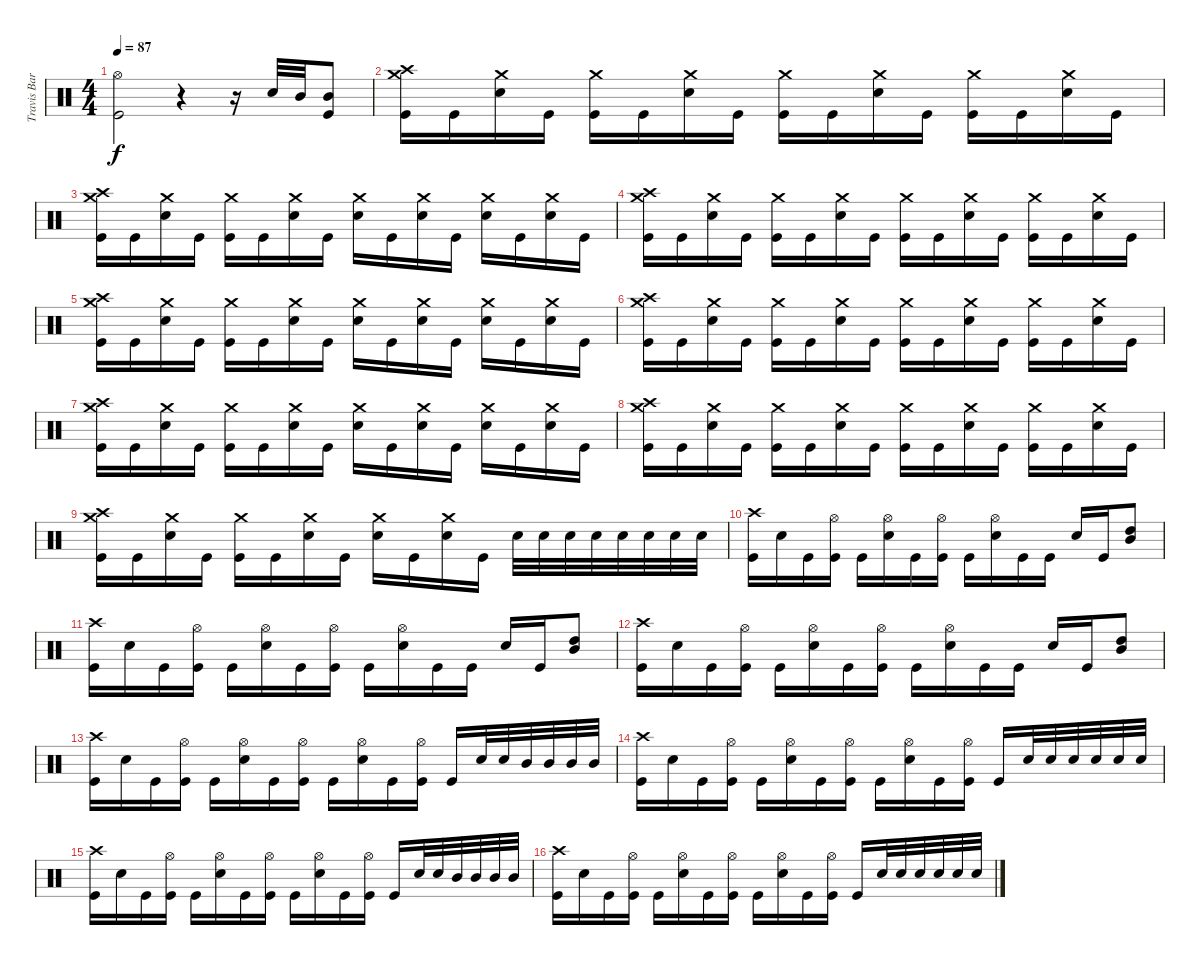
\track ("Travis Barker" "Travis Bar") {instrument percussion}
\staff {score}
\articulation defaults
\ts (4 4)
\tempo 87
\clef neutral
\ks c
("Hi-Hat (open)" "Kick (hit)").2{dy f} r.4 r.16 "Electric Snare (hit)".32 "Mid Tom (hit)".32 ("Mid Tom (hit)" "Kick (hit)").8 |
("Crash high (hit)" "Crash medium (hit)" "Kick (hit)").16 "Kick (hit)".16 ("Crash medium (hit)" "Electric Snare (hit)").16 "Kick (hit)".16 ("Crash medium (hit)" "Kick (hit)").16 "Kick (hit)".16 ("Crash medium (hit)" "Electric Snare (hit)").16 "Kick (hit)".16 ("Crash medium (hit)" "Kick (hit)").16 "Kick (hit)".16 ("Crash medium (hit)" "Electric Snare (hit)").16 "Kick (hit)".16 ("Crash medium (hit)" "Kick (hit)").16 "Kick (hit)".16 ("Crash medium (hit)" "Electric Snare (hit)").16 "Kick (hit)".16 |
("Crash high (hit)" "Crash medium (hit)" "Kick (hit)").16 "Kick (hit)".16 ("Crash medium (hit)" "Electric Snare (hit)").16 "Kick (hit)".16 ("Crash medium (hit)" "Kick (hit)").16 "Kick (hit)".16 ("Crash medium (hit)" "Electric Snare (hit)").16 "Kick (hit)".16 ("Crash medium (hit)" "Electric Snare (hit)").16 "Kick (hit)".16 ("Crash medium (hit)" "Electric Snare (hit)").16 "Kick (hit)".16 ("Crash medium (hit)" "Electric Snare (hit)").16 "Kick (hit)".16 ("Crash medium (hit)" "Electric Snare (hit)").16 "Kick (hit)".16 |
("Crash high (hit)" "Crash medium (hit)" "Kick (hit)").16 "Kick (hit)".16 ("Crash medium (hit)" "Electric Snare (hit)").16 "Kick (hit)".16 ("Crash medium (hit)" "Kick (hit)").16 "Kick (hit)".16 ("Crash medium (hit)" "Electric Snare (hit)").16 "Kick (hit)".16 ("Crash medium (hit)" "Kick (hit)").16 "Kick (hit)".16 ("Crash medium (hit)" "Electric Snare (hit)").16 "Kick (hit)".16 ("Crash medium (hit)" "Kick (hit)").16 "Kick (hit)".16 ("Crash medium (hit)" "Electric Snare (hit)").16 "Kick (hit)".16 |
("Crash high (hit)" "Crash medium (hit)" "Kick (hit)").16 "Kick (hit)".16 ("Crash medium (hit)" "Electric Snare (hit)").16 "Kick (hit)".16 ("Crash medium (hit)" "Kick (hit)").16 "Kick (hit)".16 ("Crash medium (hit)" "Electric Snare (hit)").16 "Kick (hit)".16 ("Crash medium (hit)" "Electric Snare (hit)").16 "Kick (hit)".16 ("Crash medium (hit)" "Electric Snare (hit)").16 "Kick (hit)".16 ("Crash medium (hit)" "Electric Snare (hit)").16 "Kick (hit)".16 ("Crash medium (hit)" "Electric Snare (hit)").16 "Kick (hit)".16 |
("Crash high (hit)" "Crash medium (hit)" "Kick (hit)").16 "Kick (hit)".16 ("Crash medium (hit)" "Electric Snare (hit)").16 "Kick (hit)".16 ("Crash medium (hit)" "Kick (hit)").16 "Kick (hit)".16 ("Crash medium (hit)" "Electric Snare (hit)").16 "Kick (hit)".16 ("Crash medium (hit)" "Kick (hit)").16 "Kick (hit)".16 ("Crash medium (hit)" "Electric Snare (hit)").16 "Kick (hit)".16 ("Crash medium (hit)" "Kick (hit)").16 "Kick (hit)".16 ("Crash medium (hit)" "Electric Snare (hit)").16 "Kick (hit)".16 |
("Crash high (hit)" "Crash medium (hit)" "Kick (hit)").16 "Kick (hit)".16 ("Crash medium (hit)" "Electric Snare (hit)").16 "Kick (hit)".16 ("Crash medium (hit)" "Kick (hit)").16 "Kick (hit)".16 ("Crash medium (hit)" "Electric Snare (hit)").16 "Kick (hit)".16 ("Crash medium (hit)" "Electric Snare (hit)").16 "Kick (hit)".16 ("Crash medium (hit)" "Electric Snare (hit)").16 "Kick (hit)".16 ("Crash medium (hit)" "Electric Snare (hit)").16 "Kick (hit)".16 ("Crash medium (hit)" "Electric Snare (hit)").16 "Kick (hit)".16 |
("Crash high (hit)" "Crash medium (hit)" "Kick (hit)").16 "Kick (hit)".16 ("Crash medium (hit)" "Electric Snare (hit)").16 "Kick (hit)".16 ("Crash medium (hit)" "Kick (hit)").16 "Kick (hit)".16 ("Crash medium (hit)" "Electric Snare (hit)").16 "Kick (hit)".16 ("Crash medium (hit)" "Kick (hit)").16 "Kick (hit)".16 ("Crash medium (hit)" "Electric Snare (hit)").16 "Kick (hit)".16 ("Crash medium (hit)" "Kick (hit)").16 "Kick (hit)".16 ("Crash medium (hit)" "Electric Snare (hit)").16 "Kick (hit)".16 |
("Crash high (hit)" "Crash medium (hit)" "Kick (hit)").16 "Kick (hit)".16 ("Crash medium (hit)" "Electric Snare (hit)").16 "Kick (hit)".16 ("Crash medium (hit)" "Kick (hit)").16 "Kick (hit)".16 ("Crash medium (hit)" "Electric Snare (hit)").16 "Kick (hit)".16 ("Crash medium (hit)" "Electric Snare (hit)").16 "Kick (hit)".16 ("Crash medium (hit)" "Electric Snare (hit)").16 "Kick (hit)".16 "Electric Snare (hit)".32 "Electric Snare (hit)".32 "Electric Snare (hit)".32 "Electric Snare (hit)".32 "Electric Snare (hit)".32 "Electric Snare (hit)".32 "Electric Snare (hit)".32 "Electric Snare (hit)".32 |
("Crash high (hit)" "Kick (hit)").16 "Electric Snare (hit)".16 "Kick (hit)".16 ("Hi-Hat (open)" "Kick (hit)").16 "Kick (hit)".16 ("Hi-Hat (open)" "Electric Snare (hit)").16 "Kick (hit)".16 ("Hi-Hat (open)" "Kick (hit)").16 "Kick (hit)".16 ("Hi-Hat (open)" "Electric Snare (hit)").16 "Kick (hit)".16 "Kick (hit)".16 "Electric Snare (hit)".16 "Kick (hit)".16 ("High Tom (hit)" "Mid Tom (hit)").8 |
("Crash high (hit)" "Kick (hit)").16 "Electric Snare (hit)".16 "Kick (hit)".16 ("Hi-Hat (open)" "Kick (hit)").16 "Kick (hit)".16 ("Hi-Hat (open)" "Electric Snare (hit)").16 "Kick (hit)".16 ("Hi-Hat (open)" "Kick (hit)").16 "Kick (hit)".16 ("Hi-Hat (open)" "Electric Snare (hit)").16 "Kick (hit)".16 "Kick (hit)".16 "Electric Snare (hit)".16 "Kick (hit)".16 ("High Tom (hit)" "Mid Tom (hit)").8 |
("Crash high (hit)" "Kick (hit)").16 "Electric Snare (hit)".16 "Kick (hit)".16 ("Hi-Hat (open)" "Kick (hit)").16 "Kick (hit)".16 ("Hi-Hat (open)" "Electric Snare (hit)").16 "Kick (hit)".16 ("Hi-Hat (open)" "Kick (hit)").16 "Kick (hit)".16 ("Hi-Hat (open)" "Electric Snare (hit)").16 "Kick (hit)".16 "Kick (hit)".16 "Electric Snare (hit)".16 "Kick (hit)".16 ("High Tom (hit)" "Mid Tom (hit)").8 |
("Crash high (hit)" "Kick (hit)").16 "Electric Snare (hit)".16 "Kick (hit)".16 ("Hi-Hat (open)" "Kick (hit)").16 "Kick (hit)".16 ("Hi-Hat (open)" "Electric Snare (hit)").16 "Kick (hit)".16 ("Hi-Hat (open)" "Kick (hit)").16 "Kick (hit)".16 ("Hi-Hat (open)" "Electric Snare (hit)").16 "Kick (hit)".16 ("Hi-Hat (open)" "Kick (hit)").16 "Kick (hit)".16 "Electric Snare (hit)".32 "Electric Snare (hit)".32 "Mid Tom (hit)".32 "Mid Tom (hit)".32 "Mid Tom (hit)".32 "Mid Tom (hit)".32 |
("Crash high (hit)" "Kick (hit)").16 "Electric Snare (hit)".16 "Kick (hit)".16 ("Hi-Hat (open)" "Kick (hit)").16 "Kick (hit)".16 ("Hi-Hat (open)" "Electric Snare (hit)").16 "Kick (hit)".16 ("Hi-Hat (open)" "Kick (hit)").16 "Kick (hit)".16 ("Hi-Hat (open)" "Electric Snare (hit)").16 "Kick (hit)".16 ("Hi-Hat (open)" "Kick (hit)").16 "Kick (hit)".16 "Electric Snare (hit)".32 "Electric Snare (hit)".32 "Electric Snare (hit)".32 "Electric Snare (hit)".32 "Electric Snare (hit)".32 "Electric Snare (hit)".32 |
("Crash high (hit)" "Kick (hit)").16 "Electric Snare (hit)".16 "Kick (hit)".16 ("Hi-Hat (open)" "Kick (hit)").16 "Kick (hit)".16 ("Hi-Hat (open)" "Electric Snare (hit)").16 "Kick (hit)".16 ("Hi-Hat (open)" "Kick (hit)").16 "Kick (hit)".16 ("Hi-Hat (open)" "Electric Snare (hit)").16 "Kick (hit)".16 ("Hi-Hat (open)" "Kick (hit)").16 "Kick (hit)".16 "Electric Snare (hit)".32 "Electric Snare (hit)".32 "Mid Tom (hit)".32 "Mid Tom (hit)".32 "Mid Tom (hit)".32 "Mid Tom (hit)".32 |
("Crash high (hit)" "Kick (hit)").16 "Electric Snare (hit)".16 "Kick (hit)".16 ("Hi-Hat (open)" "Kick (hit)").16 "Kick (hit)".16 ("Hi-Hat (open)" "Electric Snare (hit)").16 "Kick (hit)".16 ("Hi-Hat (open)" "Kick (hit)").16 "Kick (hit)".16 ("Hi-Hat (open)" "Electric Snare (hit)").16 "Kick (hit)".16 ("Hi-Hat (open)" "Kick (hit)").16 "Kick (hit)".16 "Electric Snare (hit)".32 "Electric Snare (hit)".32 "Electric Snare (hit)".32 "Electric Snare (hit)".32 "Electric Snare (hit)".32 "Electric Snare (hit)".32
